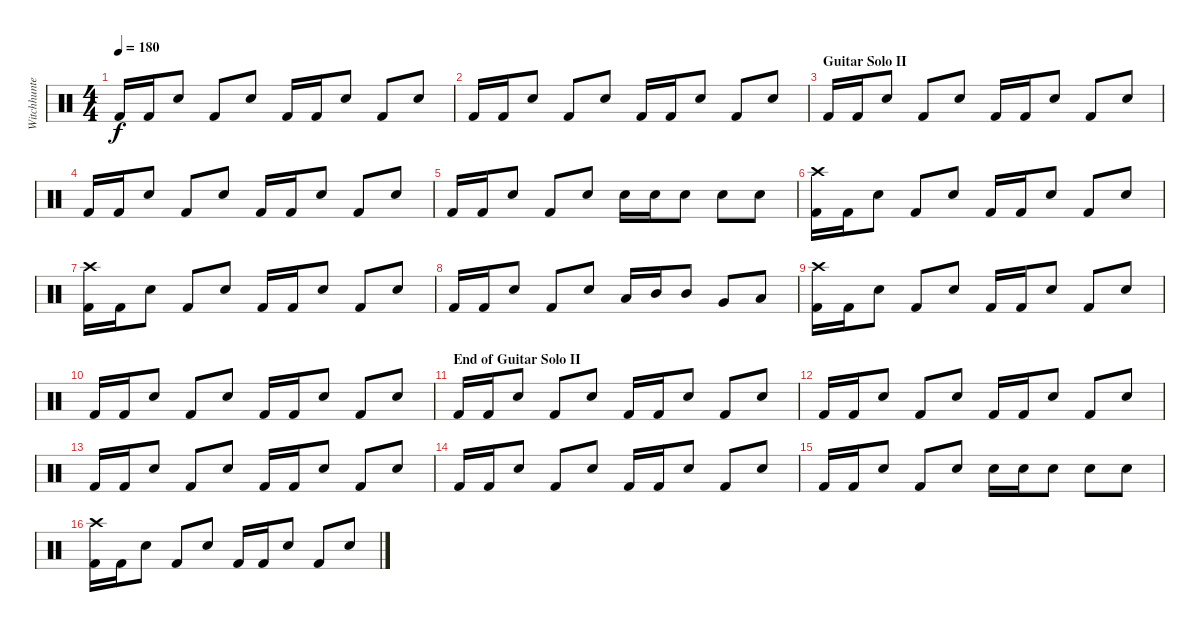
\track ("Witchhunter (Drums)" "Witchhunte") {instrument percussion}
\staff {score}
\articulation defaults
\ts (4 4)
\tempo 180
\clef neutral
\ks c "Kick (hit) 2".16{dy f} "Kick (hit) 2".16 "Snare (hit) 2".8 "Kick (hit) 2".8 "Snare (hit) 2".8 "Kick (hit) 2".16 "Kick (hit) 2".16 "Snare (hit) 2".8 "Kick (hit) 2".8 "Snare (hit) 2".8
|
"Kick (hit) 2".16 "Kick (hit) 2".16 "Snare (hit) 2".8 "Kick (hit) 2".8 "Snare (hit) 2".8 "Kick (hit) 2".16 "Kick (hit) 2".16 "Snare (hit) 2".8 "Kick (hit) 2".8 "Snare (hit) 2".8 |
\section ("" "Guitar Solo II")
"Kick (hit) 2".16 "Kick (hit) 2".16 "Snare (hit) 2".8 "Kick (hit) 2".8 "Snare (hit) 2".8 "Kick (hit) 2".16 "Kick (hit) 2".16 "Snare (hit) 2".8 "Kick (hit) 2".8 "Snare (hit) 2".8 |
"Kick (hit) 2".16 "Kick (hit) 2".16 "Snare (hit) 2".8 "Kick (hit) 2".8 "Snare (hit) 2".8 "Kick (hit) 2".16 "Kick (hit) 2".16 "Snare (hit) 2".8 "Kick (hit) 2".8 "Snare (hit) 2".8 |
"Kick (hit) 2".16 "Kick (hit) 2".16 "Snare (hit) 2".8 "Kick (hit) 2".8 "Snare (hit) 2".8 "Snare (hit) 2".16 "Snare (hit) 2".16 "Snare (hit) 2".8 "Snare (hit) 2".8 "Snare (hit) 2".8 |
("Crash high (hit)" "Kick (hit) 2").16 "Kick (hit) 2".16 "Snare (hit) 2".8 "Kick (hit) 2".8 "Snare (hit) 2".8 "Kick (hit) 2".16 "Kick (hit) 2".16 "Snare (hit) 2".8 "Kick (hit) 2".8 "Snare (hit) 2".8 |
("Crash high (hit)" "Kick (hit) 2").16 "Kick (hit) 2".16 "Snare (hit) 2".8 "Kick (hit) 2".8 "Snare (hit) 2".8 "Kick (hit) 2".16 "Kick (hit) 2".16 "Snare (hit) 2".8 "Kick (hit) 2".8 "Snare (hit) 2".8 |
"Kick (hit) 2".16 "Kick (hit) 2".16 "Snare (hit) 2".8 "Kick (hit) 2".8 "Snare (hit) 2".8 "Low Tom (hit)".16 "Mid Tom (hit)".16 "Mid Tom (hit)".8 "Very Low Tom (hit)".8 "Low Tom (hit)".8 |
("Crash high (hit)" "Kick (hit) 2").16 "Kick (hit) 2".16 "Snare (hit) 2".8 "Kick (hit) 2".8 "Snare (hit) 2".8 "Kick (hit) 2".16 "Kick (hit) 2".16 "Snare (hit) 2".8 "Kick (hit) 2".8 "Snare (hit) 2".8 |
"Kick (hit) 2".16 "Kick (hit) 2".16 "Snare (hit) 2".8 "Kick (hit) 2".8 "Snare (hit) 2".8 "Kick (hit) 2".16 "Kick (hit) 2".16 "Snare (hit) 2".8 "Kick (hit) 2".8 "Snare (hit) 2".8 |
\section ("" "End of Guitar Solo II")
"Kick (hit) 2".16 "Kick (hit) 2".16 "Snare (hit) 2".8 "Kick (hit) 2".8 "Snare (hit) 2".8 "Kick (hit) 2".16 "Kick (hit) 2".16 "Snare (hit) 2".8 "Kick (hit) 2".8 "Snare (hit) 2".8 |
"Kick (hit) 2".16 "Kick (hit) 2".16 "Snare (hit) 2".8 "Kick (hit) 2".8 "Snare (hit) 2".8 "Kick (hit) 2".16 "Kick (hit) 2".16 "Snare (hit) 2".8 "Kick (hit) 2".8 "Snare (hit) 2".8 |
"Kick (hit) 2".16 "Kick (hit) 2".16 "Snare (hit) 2".8 "Kick (hit) 2".8 "Snare (hit) 2".8 "Kick (hit) 2".16 "Kick (hit) 2".16 "Snare (hit) 2".8 "Kick (hit) 2".8 "Snare (hit) 2".8 |
"Kick (hit) 2".16 "Kick (hit) 2".16 "Snare (hit) 2".8 "Kick (hit) 2".8 "Snare (hit) 2".8 "Kick (hit) 2".16 "Kick (hit) 2".16 "Snare (hit) 2".8 "Kick (hit) 2".8 "Snare (hit) 2".8 |
"Kick (hit) 2".16 "Kick (hit) 2".16 "Snare (hit) 2".8 "Kick (hit) 2".8 "Snare (hit) 2".8 "Snare (hit) 2".16 "Snare (hit) 2".16 "Snare (hit) 2".8 "Snare (hit) 2".8 "Snare (hit) 2".8 |
("Crash high (hit)" "Kick (hit) 2").16 "Kick (hit) 2".16 "Snare (hit) 2".8 "Kick (hit) 2".8 "Snare (hit) 2".8 "Kick (hit) 2".16 "Kick (hit) 2".16 "Snare (hit) 2".8 "Kick (hit) 2".8 "Snare (hit) 2".8
